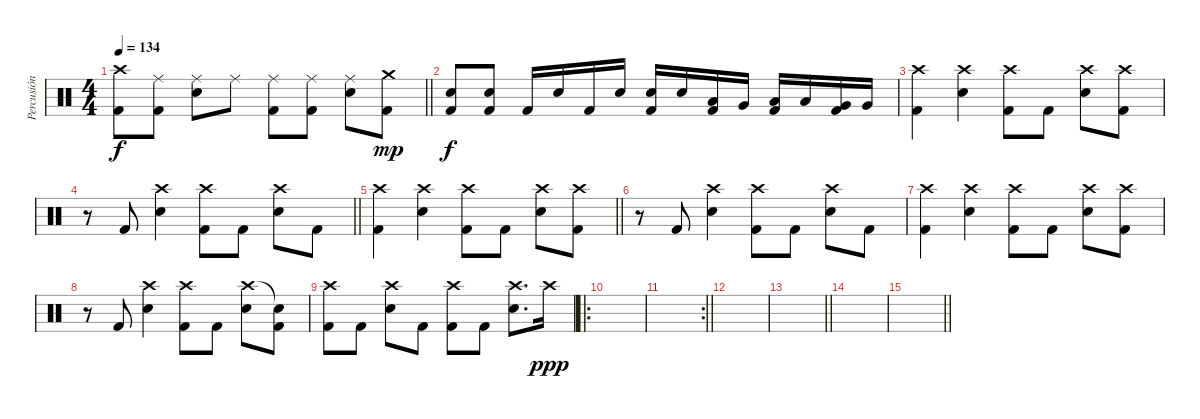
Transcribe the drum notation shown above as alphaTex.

\track ("Percusión" "Percusión") {instrument percussion}
\staff {score}
\articulation defaults
\ts (4 4)
\tempo 134
\clef neutral
\barLineRight lightlight
\ks c
("Crash high (hit)" "Kick (hit) 2").8{dy f} ("Ride (middle)" "Kick (hit) 2").8 ("Ride (middle)" "Electric Snare (hit)").8 "Ride (middle)".8 ("Ride (middle)" "Kick (hit) 2").8 ("Ride (middle)" "Kick (hit) 2").8 ("Ride (middle)" "Electric Snare (hit)").8 ("Crash medium (hit)" "Kick (hit) 2").8{dy mp} |
("Electric Snare (hit)" "Kick (hit) 2").8{dy f} ("Electric Snare (hit)" "Kick (hit) 2").8 "Kick (hit) 2".16 "Electric Snare (hit)".16 "Kick (hit) 2".16 "Electric Snare (hit)".16 ("Electric Snare (hit)" "Kick (hit) 2").16 "Electric Snare (hit)".16 ("Low Tom (hit)" "Kick (hit) 2").16 "Very Low Tom (hit)".16 ("Low Tom (hit)" "Kick (hit) 2").16 "Low Tom (hit)".16 ("Very Low Tom (hit)" "Kick (hit) 2").16 "Very Low Tom (hit)".16 |
("Crash high (hit)" "Kick (hit) 2").4 ("Crash high (hit)" "Electric Snare (hit)").4 ("Crash high (hit)" "Kick (hit) 2").8 "Kick (hit) 2".8 ("Crash high (hit)" "Electric Snare (hit)").8 ("Crash high (hit)" "Kick (hit) 2").8 |
\barLineRight lightlight
r.8 "Kick (hit) 2".8 ("Crash high (hit)" "Electric Snare (hit)").4 ("Crash high (hit)" "Kick (hit) 2").8 "Kick (hit) 2".8 ("Crash high (hit)" "Electric Snare (hit)").8 "Kick (hit) 2".8 |
\barLineRight lightlight
("Crash high (hit)" "Kick (hit) 2").4 ("Crash high (hit)" "Electric Snare (hit)").4 ("Crash high (hit)" "Kick (hit) 2").8 "Kick (hit) 2".8 ("Crash high (hit)" "Electric Snare (hit)").8 ("Crash high (hit)" "Kick (hit) 2").8 |
r.8 "Kick (hit) 2".8 ("Crash high (hit)" "Electric Snare (hit)").4 ("Crash high (hit)" "Kick (hit) 2").8 "Kick (hit) 2".8 ("Crash high (hit)" "Electric Snare (hit)").8 "Kick (hit) 2".8 |
("Crash high (hit)" "Kick (hit) 2").4 ("Crash high (hit)" "Electric Snare (hit)").4 ("Crash high (hit)" "Kick (hit) 2").8 "Kick (hit) 2".8 ("Crash high (hit)" "Electric Snare (hit)").8 ("Crash high (hit)" "Kick (hit) 2").8 |
r.8 "Kick (hit) 2".8 ("Crash high (hit)" "Electric Snare (hit)").4 ("Crash high (hit)" "Kick (hit) 2").8 "Kick (hit) 2".8 ("Crash high (hit)" "Electric Snare (hit)").8 ("Snare (hit)"{t} "Kick (hit) 2").8 |
("Crash high (hit)" "Kick (hit) 2").8 "Kick (hit) 2".8 ("Crash high (hit)" "Electric Snare (hit)").8 "Kick (hit) 2".8 ("Crash high (hit)" "Kick (hit) 2").8 "Kick (hit) 2".8 ("Crash high (hit)" "Electric Snare (hit)").8{d} "Crash high (hit)".16{dy ppp} |
\ro
|
\rc 2
\barLineRight lightlight
|
|
\barLineRight lightlight
|
|
\barLineRight lightlight
